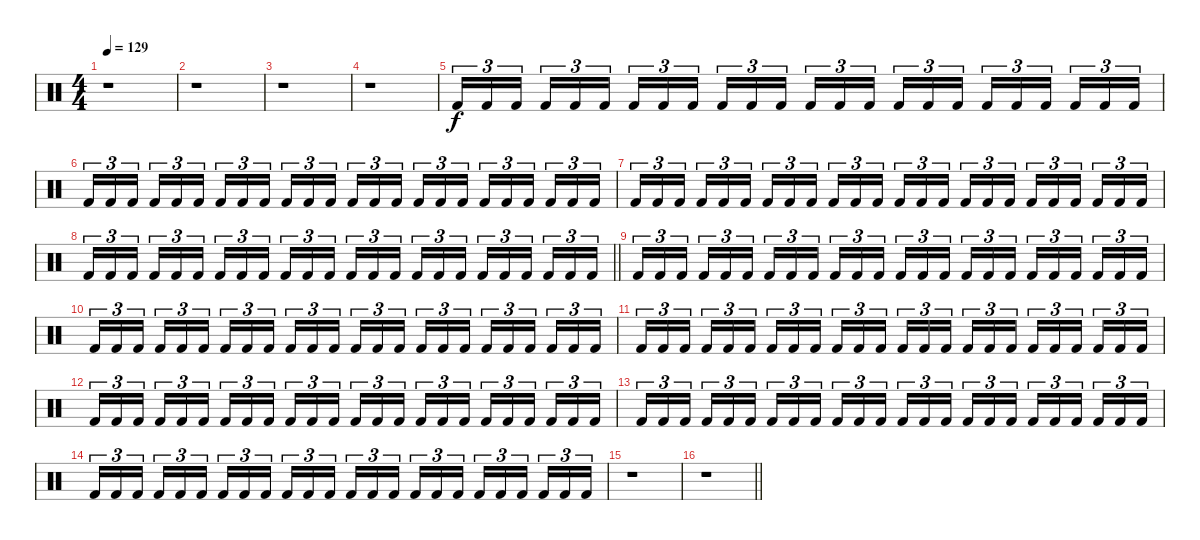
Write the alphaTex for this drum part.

\track "" {instrument percussion}
\staff {score}
\articulation defaults
\ts (4 4)
\tempo 129
\clef neutral
\ks c
r.1{dy f} |
r.1 |
r.1 |
r.1 |
"Kick (hit) 2".16{tu (3 2)} "Kick (hit) 2".16{tu (3 2)} "Kick (hit) 2".16{tu (3 2) beam splitsecondary} "Kick (hit) 2".16{tu (3 2)} "Kick (hit) 2".16{tu (3 2)} "Kick (hit) 2".16{tu (3 2)} "Kick (hit) 2".16{tu (3 2)} "Kick (hit) 2".16{tu (3 2)} "Kick (hit) 2".16{tu (3 2) beam splitsecondary} "Kick (hit) 2".16{tu (3 2)} "Kick (hit) 2".16{tu (3 2)} "Kick (hit) 2".16{tu (3 2)} "Kick (hit) 2".16{tu (3 2)} "Kick (hit) 2".16{tu (3 2)} "Kick (hit) 2".16{tu (3 2) beam splitsecondary} "Kick (hit) 2".16{tu (3 2)} "Kick (hit) 2".16{tu (3 2)} "Kick (hit) 2".16{tu (3 2)} "Kick (hit) 2".16{tu (3 2)} "Kick (hit) 2".16{tu (3 2)} "Kick (hit) 2".16{tu (3 2) beam splitsecondary} "Kick (hit) 2".16{tu (3 2)} "Kick (hit) 2".16{tu (3 2)} "Kick (hit) 2".16{tu (3 2)} |
"Kick (hit) 2".16{tu (3 2)} "Kick (hit) 2".16{tu (3 2)} "Kick (hit) 2".16{tu (3 2) beam splitsecondary} "Kick (hit) 2".16{tu (3 2)} "Kick (hit) 2".16{tu (3 2)} "Kick (hit) 2".16{tu (3 2)} "Kick (hit) 2".16{tu (3 2)} "Kick (hit) 2".16{tu (3 2)} "Kick (hit) 2".16{tu (3 2) beam splitsecondary} "Kick (hit) 2".16{tu (3 2)} "Kick (hit) 2".16{tu (3 2)} "Kick (hit) 2".16{tu (3 2)} "Kick (hit) 2".16{tu (3 2)} "Kick (hit) 2".16{tu (3 2)} "Kick (hit) 2".16{tu (3 2) beam splitsecondary} "Kick (hit) 2".16{tu (3 2)} "Kick (hit) 2".16{tu (3 2)} "Kick (hit) 2".16{tu (3 2)} "Kick (hit) 2".16{tu (3 2)} "Kick (hit) 2".16{tu (3 2)} "Kick (hit) 2".16{tu (3 2) beam splitsecondary} "Kick (hit) 2".16{tu (3 2)} "Kick (hit) 2".16{tu (3 2)} "Kick (hit) 2".16{tu (3 2)} |
"Kick (hit) 2".16{tu (3 2)} "Kick (hit) 2".16{tu (3 2)} "Kick (hit) 2".16{tu (3 2) beam splitsecondary} "Kick (hit) 2".16{tu (3 2)} "Kick (hit) 2".16{tu (3 2)} "Kick (hit) 2".16{tu (3 2)} "Kick (hit) 2".16{tu (3 2)} "Kick (hit) 2".16{tu (3 2)} "Kick (hit) 2".16{tu (3 2) beam splitsecondary} "Kick (hit) 2".16{tu (3 2)} "Kick (hit) 2".16{tu (3 2)} "Kick (hit) 2".16{tu (3 2)} "Kick (hit) 2".16{tu (3 2)} "Kick (hit) 2".16{tu (3 2)} "Kick (hit) 2".16{tu (3 2) beam splitsecondary} "Kick (hit) 2".16{tu (3 2)} "Kick (hit) 2".16{tu (3 2)} "Kick (hit) 2".16{tu (3 2)} "Kick (hit) 2".16{tu (3 2)} "Kick (hit) 2".16{tu (3 2)} "Kick (hit) 2".16{tu (3 2) beam splitsecondary} "Kick (hit) 2".16{tu (3 2)} "Kick (hit) 2".16{tu (3 2)} "Kick (hit) 2".16{tu (3 2)} |
\barLineRight lightlight "Kick (hit) 2".16{tu (3 2)} "Kick (hit) 2".16{tu (3 2)} "Kick (hit) 2".16{tu (3 2) beam splitsecondary} "Kick (hit) 2".16{tu (3 2)} "Kick (hit) 2".16{tu (3 2)} "Kick (hit) 2".16{tu (3 2)} "Kick (hit) 2".16{tu (3 2)} "Kick (hit) 2".16{tu (3 2)} "Kick (hit) 2".16{tu (3 2) beam splitsecondary} "Kick (hit) 2".16{tu (3 2)} "Kick (hit) 2".16{tu (3 2)} "Kick (hit) 2".16{tu (3 2)} "Kick (hit) 2".16{tu (3 2)} "Kick (hit) 2".16{tu (3 2)} "Kick (hit) 2".16{tu (3 2) beam splitsecondary} "Kick (hit) 2".16{tu (3 2)} "Kick (hit) 2".16{tu (3 2)} "Kick (hit) 2".16{tu (3 2)} "Kick (hit) 2".16{tu (3 2)} "Kick (hit) 2".16{tu (3 2)} "Kick (hit) 2".16{tu (3 2) beam splitsecondary} "Kick (hit) 2".16{tu (3 2)} "Kick (hit) 2".16{tu (3 2)} "Kick (hit) 2".16{tu (3 2)}
|
"Kick (hit) 2".16{tu (3 2)} "Kick (hit) 2".16{tu (3 2)} "Kick (hit) 2".16{tu (3 2) beam splitsecondary} "Kick (hit) 2".16{tu (3 2)} "Kick (hit) 2".16{tu (3 2)} "Kick (hit) 2".16{tu (3 2)} "Kick (hit) 2".16{tu (3 2)} "Kick (hit) 2".16{tu (3 2)} "Kick (hit) 2".16{tu (3 2) beam splitsecondary} "Kick (hit) 2".16{tu (3 2)} "Kick (hit) 2".16{tu (3 2)} "Kick (hit) 2".16{tu (3 2)} "Kick (hit) 2".16{tu (3 2)} "Kick (hit) 2".16{tu (3 2)} "Kick (hit) 2".16{tu (3 2) beam splitsecondary} "Kick (hit) 2".16{tu (3 2)} "Kick (hit) 2".16{tu (3 2)} "Kick (hit) 2".16{tu (3 2)} "Kick (hit) 2".16{tu (3 2)} "Kick (hit) 2".16{tu (3 2)} "Kick (hit) 2".16{tu (3 2) beam splitsecondary} "Kick (hit) 2".16{tu (3 2)} "Kick (hit) 2".16{tu (3 2)} "Kick (hit) 2".16{tu (3 2)} |
"Kick (hit) 2".16{tu (3 2)} "Kick (hit) 2".16{tu (3 2)} "Kick (hit) 2".16{tu (3 2) beam splitsecondary} "Kick (hit) 2".16{tu (3 2)} "Kick (hit) 2".16{tu (3 2)} "Kick (hit) 2".16{tu (3 2)} "Kick (hit) 2".16{tu (3 2)} "Kick (hit) 2".16{tu (3 2)} "Kick (hit) 2".16{tu (3 2) beam splitsecondary} "Kick (hit) 2".16{tu (3 2)} "Kick (hit) 2".16{tu (3 2)} "Kick (hit) 2".16{tu (3 2)} "Kick (hit) 2".16{tu (3 2)} "Kick (hit) 2".16{tu (3 2)} "Kick (hit) 2".16{tu (3 2) beam splitsecondary} "Kick (hit) 2".16{tu (3 2)} "Kick (hit) 2".16{tu (3 2)} "Kick (hit) 2".16{tu (3 2)} "Kick (hit) 2".16{tu (3 2)} "Kick (hit) 2".16{tu (3 2)} "Kick (hit) 2".16{tu (3 2) beam splitsecondary} "Kick (hit) 2".16{tu (3 2)} "Kick (hit) 2".16{tu (3 2)} "Kick (hit) 2".16{tu (3 2)} |
"Kick (hit) 2".16{tu (3 2)} "Kick (hit) 2".16{tu (3 2)} "Kick (hit) 2".16{tu (3 2) beam splitsecondary} "Kick (hit) 2".16{tu (3 2)} "Kick (hit) 2".16{tu (3 2)} "Kick (hit) 2".16{tu (3 2)} "Kick (hit) 2".16{tu (3 2)} "Kick (hit) 2".16{tu (3 2)} "Kick (hit) 2".16{tu (3 2) beam splitsecondary} "Kick (hit) 2".16{tu (3 2)} "Kick (hit) 2".16{tu (3 2)} "Kick (hit) 2".16{tu (3 2)} "Kick (hit) 2".16{tu (3 2)} "Kick (hit) 2".16{tu (3 2)} "Kick (hit) 2".16{tu (3 2) beam splitsecondary} "Kick (hit) 2".16{tu (3 2)} "Kick (hit) 2".16{tu (3 2)} "Kick (hit) 2".16{tu (3 2)} "Kick (hit) 2".16{tu (3 2)} "Kick (hit) 2".16{tu (3 2)} "Kick (hit) 2".16{tu (3 2) beam splitsecondary} "Kick (hit) 2".16{tu (3 2)} "Kick (hit) 2".16{tu (3 2)} "Kick (hit) 2".16{tu (3 2)} |
"Kick (hit) 2".16{tu (3 2)} "Kick (hit) 2".16{tu (3 2)} "Kick (hit) 2".16{tu (3 2) beam splitsecondary} "Kick (hit) 2".16{tu (3 2)} "Kick (hit) 2".16{tu (3 2)} "Kick (hit) 2".16{tu (3 2)} "Kick (hit) 2".16{tu (3 2)} "Kick (hit) 2".16{tu (3 2)} "Kick (hit) 2".16{tu (3 2) beam splitsecondary} "Kick (hit) 2".16{tu (3 2)} "Kick (hit) 2".16{tu (3 2)} "Kick (hit) 2".16{tu (3 2)} "Kick (hit) 2".16{tu (3 2)} "Kick (hit) 2".16{tu (3 2)} "Kick (hit) 2".16{tu (3 2) beam splitsecondary} "Kick (hit) 2".16{tu (3 2)} "Kick (hit) 2".16{tu (3 2)} "Kick (hit) 2".16{tu (3 2)} "Kick (hit) 2".16{tu (3 2)} "Kick (hit) 2".16{tu (3 2)} "Kick (hit) 2".16{tu (3 2) beam splitsecondary} "Kick (hit) 2".16{tu (3 2)} "Kick (hit) 2".16{tu (3 2)} "Kick (hit) 2".16{tu (3 2)} |
"Kick (hit) 2".16{tu (3 2)} "Kick (hit) 2".16{tu (3 2)} "Kick (hit) 2".16{tu (3 2) beam splitsecondary} "Kick (hit) 2".16{tu (3 2)} "Kick (hit) 2".16{tu (3 2)} "Kick (hit) 2".16{tu (3 2)} "Kick (hit) 2".16{tu (3 2)} "Kick (hit) 2".16{tu (3 2)} "Kick (hit) 2".16{tu (3 2) beam splitsecondary} "Kick (hit) 2".16{tu (3 2)} "Kick (hit) 2".16{tu (3 2)} "Kick (hit) 2".16{tu (3 2)} "Kick (hit) 2".16{tu (3 2)} "Kick (hit) 2".16{tu (3 2)} "Kick (hit) 2".16{tu (3 2) beam splitsecondary} "Kick (hit) 2".16{tu (3 2)} "Kick (hit) 2".16{tu (3 2)} "Kick (hit) 2".16{tu (3 2)} "Kick (hit) 2".16{tu (3 2)} "Kick (hit) 2".16{tu (3 2)} "Kick (hit) 2".16{tu (3 2) beam splitsecondary} "Kick (hit) 2".16{tu (3 2)} "Kick (hit) 2".16{tu (3 2)} "Kick (hit) 2".16{tu (3 2)} |
"Kick (hit) 2".16{tu (3 2)} "Kick (hit) 2".16{tu (3 2)} "Kick (hit) 2".16{tu (3 2) beam splitsecondary} "Kick (hit) 2".16{tu (3 2)} "Kick (hit) 2".16{tu (3 2)} "Kick (hit) 2".16{tu (3 2)} "Kick (hit) 2".16{tu (3 2)} "Kick (hit) 2".16{tu (3 2)} "Kick (hit) 2".16{tu (3 2) beam splitsecondary} "Kick (hit) 2".16{tu (3 2)} "Kick (hit) 2".16{tu (3 2)} "Kick (hit) 2".16{tu (3 2)} "Kick (hit) 2".16{tu (3 2)} "Kick (hit) 2".16{tu (3 2)} "Kick (hit) 2".16{tu (3 2) beam splitsecondary} "Kick (hit) 2".16{tu (3 2)} "Kick (hit) 2".16{tu (3 2)} "Kick (hit) 2".16{tu (3 2)} "Kick (hit) 2".16{tu (3 2)} "Kick (hit) 2".16{tu (3 2)} "Kick (hit) 2".16{tu (3 2) beam splitsecondary} "Kick (hit) 2".16{tu (3 2)} "Kick (hit) 2".16{tu (3 2)} "Kick (hit) 2".16{tu (3 2)} |
r.1 |
\barLineRight lightlight
r.1
